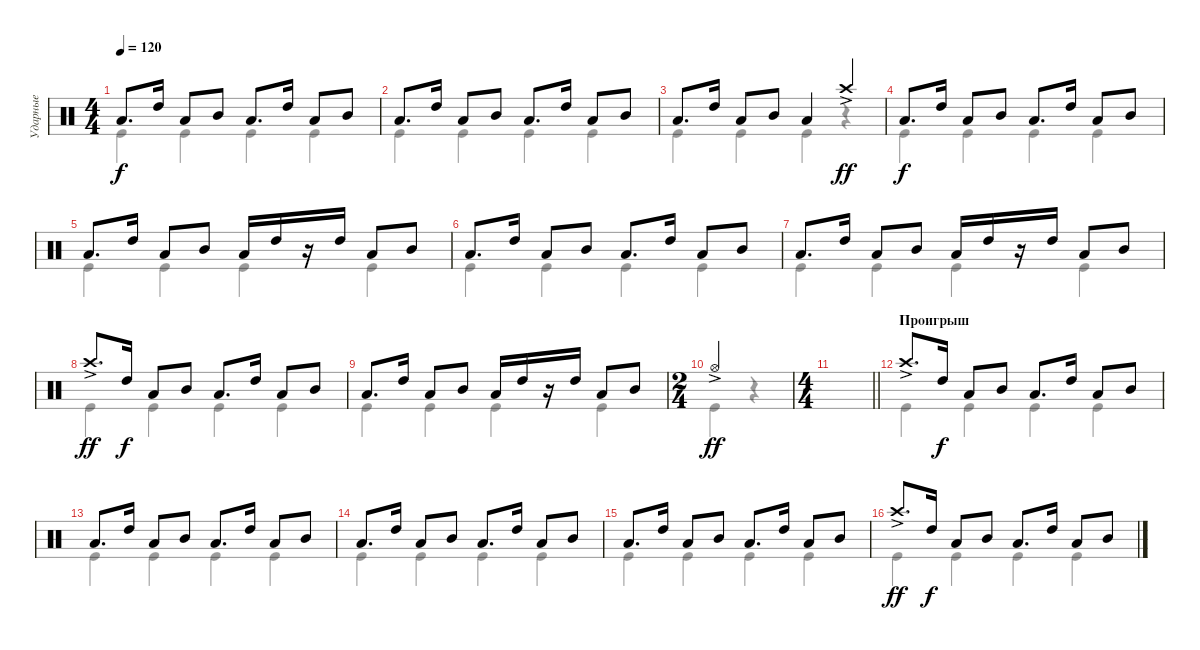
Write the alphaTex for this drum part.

\track ("Ударные" "Ударные") {instrument percussion}
\staff {score}
\articulation defaults
\voice
\ts (4 4)
\tempo 120
\clef neutral
\ks c "Low Tom (hit)".8{d dy f} "High Tom (hit)".16 "Low Tom (hit)".8 "Mid Tom (hit)".8 "Low Tom (hit)".8{d} "High Tom (hit)".16 "Low Tom (hit)".8 "Mid Tom (hit)".8
|
"Low Tom (hit)".8{d} "High Tom (hit)".16 "Low Tom (hit)".8 "Mid Tom (hit)".8 "Low Tom (hit)".8{d} "High Tom (hit)".16 "Low Tom (hit)".8 "Mid Tom (hit)".8 |
"Low Tom (hit)".8{d} "High Tom (hit)".16 "Low Tom (hit)".8 "Mid Tom (hit)".8 "Low Tom (hit)".4 "Crash high (hit)"{ac}.4{dy ff} |
"Low Tom (hit)".8{d dy f} "High Tom (hit)".16 "Low Tom (hit)".8 "Mid Tom (hit)".8 "Low Tom (hit)".8{d} "High Tom (hit)".16 "Low Tom (hit)".8 "Mid Tom (hit)".8 |
"Low Tom (hit)".8{d} "High Tom (hit)".16 "Low Tom (hit)".8 "Mid Tom (hit)".8 "Low Tom (hit)".16 "High Tom (hit)".16 r.16 "High Tom (hit)".16 "Low Tom (hit)".8 "Mid Tom (hit)".8 |
"Low Tom (hit)".8{d} "High Tom (hit)".16 "Low Tom (hit)".8 "Mid Tom (hit)".8 "Low Tom (hit)".8{d} "High Tom (hit)".16 "Low Tom (hit)".8 "Mid Tom (hit)".8 |
"Low Tom (hit)".8{d} "High Tom (hit)".16 "Low Tom (hit)".8 "Mid Tom (hit)".8 "Low Tom (hit)".16 "High Tom (hit)".16 r.16 "High Tom (hit)".16 "Low Tom (hit)".8 "Mid Tom (hit)".8 |
"Crash high (hit)"{ac}.8{d dy ff} "High Tom (hit)".16{dy f} "Low Tom (hit)".8 "Mid Tom (hit)".8 "Low Tom (hit)".8{d} "High Tom (hit)".16 "Low Tom (hit)".8 "Mid Tom (hit)".8 |
"Low Tom (hit)".8{d} "High Tom (hit)".16 "Low Tom (hit)".8 "Mid Tom (hit)".8 "Low Tom (hit)".16 "High Tom (hit)".16 r.16 "High Tom (hit)".16 "Low Tom (hit)".8 "Mid Tom (hit)".8 |
\ts (2 4)
"Hi-Hat (open)"{ac}.2{dy ff} |
\ts (4 4)
\barLineRight lightlight
|
\section ("" "Проигрыш")
"Crash high (hit)"{ac}.8{d} "High Tom (hit)".16{dy f} "Low Tom (hit)".8 "Mid Tom (hit)".8 "Low Tom (hit)".8{d} "High Tom (hit)".16 "Low Tom (hit)".8 "Mid Tom (hit)".8 |
"Low Tom (hit)".8{d} "High Tom (hit)".16 "Low Tom (hit)".8 "Mid Tom (hit)".8 "Low Tom (hit)".8{d} "High Tom (hit)".16 "Low Tom (hit)".8 "Mid Tom (hit)".8 |
"Low Tom (hit)".8{d} "High Tom (hit)".16 "Low Tom (hit)".8 "Mid Tom (hit)".8 "Low Tom (hit)".8{d} "High Tom (hit)".16 "Low Tom (hit)".8 "Mid Tom (hit)".8 |
"Low Tom (hit)".8{d} "High Tom (hit)".16 "Low Tom (hit)".8 "Mid Tom (hit)".8 "Low Tom (hit)".8{d} "High Tom (hit)".16 "Low Tom (hit)".8 "Mid Tom (hit)".8 |
"Crash high (hit)"{ac}.8{d dy ff} "High Tom (hit)".16{dy f} "Low Tom (hit)".8 "Mid Tom (hit)".8 "Low Tom (hit)".8{d} "High Tom (hit)".16 "Low Tom (hit)".8 "Mid Tom (hit)".8
\voice
\clef neutral
\ottava regular
\simile none
\ks c "Kick (hit)".4{dy f} "Kick (hit)".4 "Kick (hit)".4 "Kick (hit)".4
|
"Kick (hit)".4 "Kick (hit)".4 "Kick (hit)".4 "Kick (hit)".4 |
"Kick (hit)".4 "Kick (hit)".4 "Kick (hit)".4 r.4 |
"Kick (hit)".4 "Kick (hit)".4 "Kick (hit)".4 "Kick (hit)".4 |
"Kick (hit)".4 "Kick (hit)".4 "Kick (hit)".4 "Kick (hit)".4 |
"Kick (hit)".4 "Kick (hit)".4 "Kick (hit)".4 "Kick (hit)".4 |
"Kick (hit)".4 "Kick (hit)".4 "Kick (hit)".4 "Kick (hit)".4 |
"Kick (hit)".4 "Kick (hit)".4 "Kick (hit)".4 "Kick (hit)".4 |
"Kick (hit)".4 "Kick (hit)".4 "Kick (hit)".4 "Kick (hit)".4 |
"Kick (hit)".4 r.4 |
\barLineRight lightlight
|
"Kick (hit)".4 "Kick (hit)".4 "Kick (hit)".4 "Kick (hit)".4 |
"Kick (hit)".4 "Kick (hit)".4 "Kick (hit)".4 "Kick (hit)".4 |
"Kick (hit)".4 "Kick (hit)".4 "Kick (hit)".4 "Kick (hit)".4 |
"Kick (hit)".4 "Kick (hit)".4 "Kick (hit)".4 "Kick (hit)".4 |
"Kick (hit)".4 "Kick (hit)".4 "Kick (hit)".4 "Kick (hit)".4
